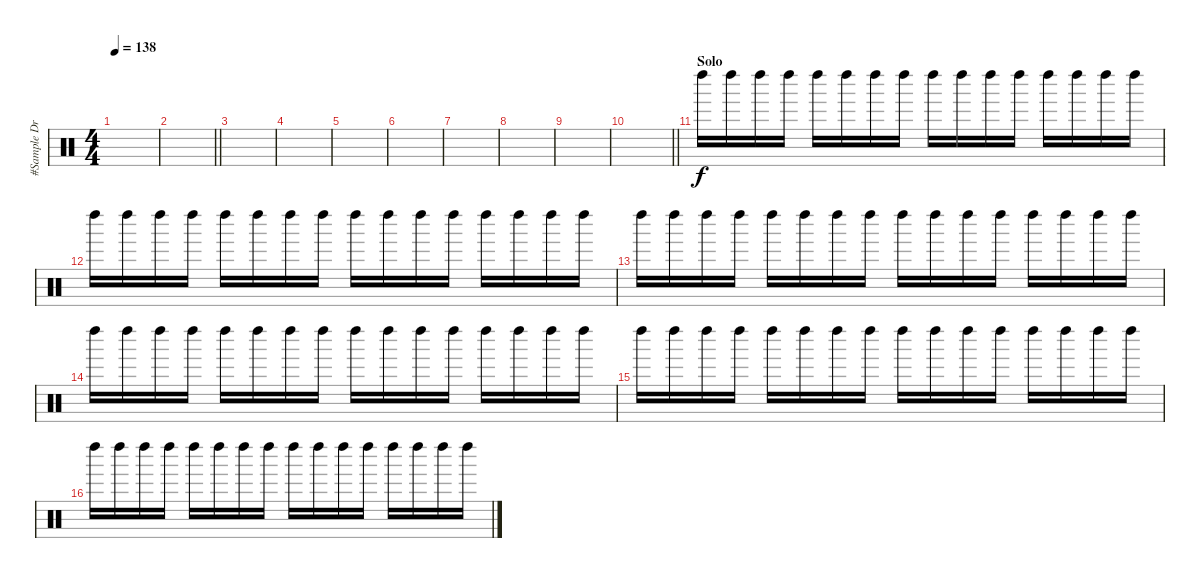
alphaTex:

\track ("#Sample Drums" "#Sample Dr") {instrument percussion}
\staff {score}
\articulation defaults
\ts (4 4)
\tempo 138
\clef neutral
\ks c
|
\barLineRight lightlight
|
|
|
|
|
|
|
|
\barLineRight lightlight
|
\section ("" "Solo ")
"Left Maraca (hit)".16 "Left Maraca (hit)".16 "Left Maraca (hit)".16 "Left Maraca (hit)".16 "Left Maraca (hit)".16 "Left Maraca (hit)".16 "Left Maraca (hit)".16 "Left Maraca (hit)".16 "Left Maraca (hit)".16 "Left Maraca (hit)".16 "Left Maraca (hit)".16 "Left Maraca (hit)".16 "Left Maraca (hit)".16 "Left Maraca (hit)".16 "Left Maraca (hit)".16 "Left Maraca (hit)".16 |
"Left Maraca (hit)".16 "Left Maraca (hit)".16 "Left Maraca (hit)".16 "Left Maraca (hit)".16 "Left Maraca (hit)".16 "Left Maraca (hit)".16 "Left Maraca (hit)".16 "Left Maraca (hit)".16 "Left Maraca (hit)".16 "Left Maraca (hit)".16 "Left Maraca (hit)".16 "Left Maraca (hit)".16 "Left Maraca (hit)".16 "Left Maraca (hit)".16 "Left Maraca (hit)".16 "Left Maraca (hit)".16 |
"Left Maraca (hit)".16 "Left Maraca (hit)".16 "Left Maraca (hit)".16 "Left Maraca (hit)".16 "Left Maraca (hit)".16 "Left Maraca (hit)".16 "Left Maraca (hit)".16 "Left Maraca (hit)".16 "Left Maraca (hit)".16 "Left Maraca (hit)".16 "Left Maraca (hit)".16 "Left Maraca (hit)".16 "Left Maraca (hit)".16 "Left Maraca (hit)".16 "Left Maraca (hit)".16 "Left Maraca (hit)".16 |
"Left Maraca (hit)".16 "Left Maraca (hit)".16 "Left Maraca (hit)".16 "Left Maraca (hit)".16 "Left Maraca (hit)".16 "Left Maraca (hit)".16 "Left Maraca (hit)".16 "Left Maraca (hit)".16 "Left Maraca (hit)".16 "Left Maraca (hit)".16 "Left Maraca (hit)".16 "Left Maraca (hit)".16 "Left Maraca (hit)".16 "Left Maraca (hit)".16 "Left Maraca (hit)".16 "Left Maraca (hit)".16 |
"Left Maraca (hit)".16 "Left Maraca (hit)".16 "Left Maraca (hit)".16 "Left Maraca (hit)".16 "Left Maraca (hit)".16 "Left Maraca (hit)".16 "Left Maraca (hit)".16 "Left Maraca (hit)".16 "Left Maraca (hit)".16 "Left Maraca (hit)".16 "Left Maraca (hit)".16 "Left Maraca (hit)".16 "Left Maraca (hit)".16 "Left Maraca (hit)".16 "Left Maraca (hit)".16 "Left Maraca (hit)".16 |
"Left Maraca (hit)".16 "Left Maraca (hit)".16 "Left Maraca (hit)".16 "Left Maraca (hit)".16 "Left Maraca (hit)".16 "Left Maraca (hit)".16 "Left Maraca (hit)".16 "Left Maraca (hit)".16 "Left Maraca (hit)".16 "Left Maraca (hit)".16 "Left Maraca (hit)".16 "Left Maraca (hit)".16 "Left Maraca (hit)".16 "Left Maraca (hit)".16 "Left Maraca (hit)".16 "Left Maraca (hit)".16
